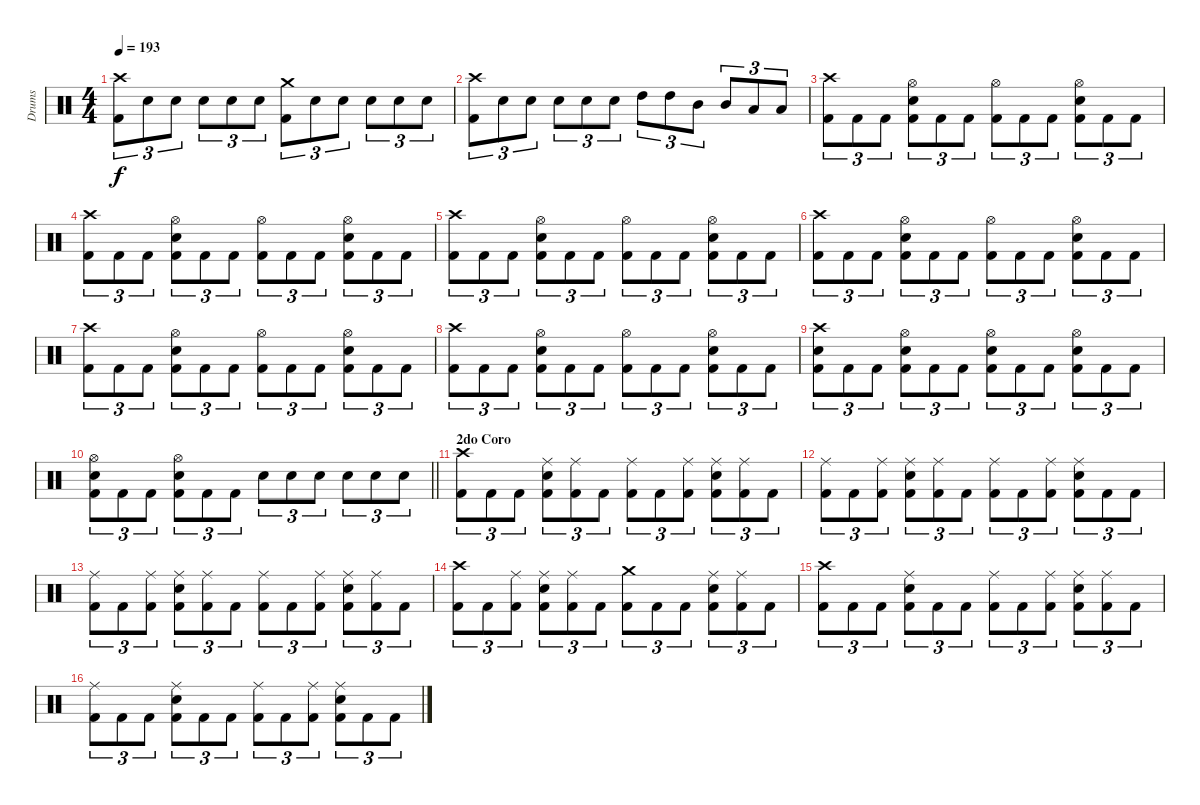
\track ("Drums" "Drums") {instrument percussion}
\staff {score}
\articulation defaults
\ts (4 4)
\tempo 193
\clef neutral
\ks c
("Crash high (hit)" "Kick (hit) 2").8{tu (3 2) dy f} "Electric Snare (hit)".8{tu (3 2)} "Electric Snare (hit)".8{tu (3 2)} "Electric Snare (hit)".8{tu (3 2)} "Electric Snare (hit)".8{tu (3 2)} "Electric Snare (hit)".8{tu (3 2)} ("Crash medium (hit)" "Kick (hit) 2").8{tu (3 2)} "Electric Snare (hit)".8{tu (3 2)} "Electric Snare (hit)".8{tu (3 2)} "Electric Snare (hit)".8{tu (3 2)} "Electric Snare (hit)".8{tu (3 2)} "Electric Snare (hit)".8{tu (3 2)} |
("Crash high (hit)" "Kick (hit) 2").8{tu (3 2)} "Electric Snare (hit)".8{tu (3 2)} "Electric Snare (hit)".8{tu (3 2)} "Electric Snare (hit)".8{tu (3 2)} "Electric Snare (hit)".8{tu (3 2)} "Electric Snare (hit)".8{tu (3 2)} "High Tom (hit)".8{tu (3 2)} "High Tom (hit)".8{tu (3 2)} "Mid Tom (hit)".8{tu (3 2)} "Mid Tom (hit)".8{tu (3 2)} "Low Tom (hit)".8{tu (3 2)} "Low Tom (hit)".8{tu (3 2)} |
("Crash high (hit)" "Kick (hit) 2").8{tu (3 2)} "Kick (hit) 2".8{tu (3 2)} "Kick (hit) 2".8{tu (3 2)} ("Hi-Hat (open)" "Electric Snare (hit)" "Kick (hit) 2").8{tu (3 2)} "Kick (hit) 2".8{tu (3 2)} "Kick (hit) 2".8{tu (3 2)} ("Hi-Hat (open)" "Kick (hit) 2").8{tu (3 2)} "Kick (hit) 2".8{tu (3 2)} "Kick (hit) 2".8{tu (3 2)} ("Hi-Hat (open)" "Electric Snare (hit)" "Kick (hit) 2").8{tu (3 2)} "Kick (hit) 2".8{tu (3 2)} "Kick (hit) 2".8{tu (3 2)} |
("Crash high (hit)" "Kick (hit) 2").8{tu (3 2)} "Kick (hit) 2".8{tu (3 2)} "Kick (hit) 2".8{tu (3 2)} ("Hi-Hat (open)" "Electric Snare (hit)" "Kick (hit) 2").8{tu (3 2)} "Kick (hit) 2".8{tu (3 2)} "Kick (hit) 2".8{tu (3 2)} ("Hi-Hat (open)" "Kick (hit) 2").8{tu (3 2)} "Kick (hit) 2".8{tu (3 2)} "Kick (hit) 2".8{tu (3 2)} ("Hi-Hat (open)" "Electric Snare (hit)" "Kick (hit) 2").8{tu (3 2)} "Kick (hit) 2".8{tu (3 2)} "Kick (hit) 2".8{tu (3 2)} |
("Crash high (hit)" "Kick (hit) 2").8{tu (3 2)} "Kick (hit) 2".8{tu (3 2)} "Kick (hit) 2".8{tu (3 2)} ("Hi-Hat (open)" "Electric Snare (hit)" "Kick (hit) 2").8{tu (3 2)} "Kick (hit) 2".8{tu (3 2)} "Kick (hit) 2".8{tu (3 2)} ("Hi-Hat (open)" "Kick (hit) 2").8{tu (3 2)} "Kick (hit) 2".8{tu (3 2)} "Kick (hit) 2".8{tu (3 2)} ("Hi-Hat (open)" "Electric Snare (hit)" "Kick (hit) 2").8{tu (3 2)} "Kick (hit) 2".8{tu (3 2)} "Kick (hit) 2".8{tu (3 2)} |
("Crash high (hit)" "Kick (hit) 2").8{tu (3 2)} "Kick (hit) 2".8{tu (3 2)} "Kick (hit) 2".8{tu (3 2)} ("Hi-Hat (open)" "Electric Snare (hit)" "Kick (hit) 2").8{tu (3 2)} "Kick (hit) 2".8{tu (3 2)} "Kick (hit) 2".8{tu (3 2)} ("Hi-Hat (open)" "Kick (hit) 2").8{tu (3 2)} "Kick (hit) 2".8{tu (3 2)} "Kick (hit) 2".8{tu (3 2)} ("Hi-Hat (open)" "Electric Snare (hit)" "Kick (hit) 2").8{tu (3 2)} "Kick (hit) 2".8{tu (3 2)} "Kick (hit) 2".8{tu (3 2)} |
("Crash high (hit)" "Kick (hit) 2").8{tu (3 2)} "Kick (hit) 2".8{tu (3 2)} "Kick (hit) 2".8{tu (3 2)} ("Hi-Hat (open)" "Electric Snare (hit)" "Kick (hit) 2").8{tu (3 2)} "Kick (hit) 2".8{tu (3 2)} "Kick (hit) 2".8{tu (3 2)} ("Hi-Hat (open)" "Kick (hit) 2").8{tu (3 2)} "Kick (hit) 2".8{tu (3 2)} "Kick (hit) 2".8{tu (3 2)} ("Hi-Hat (open)" "Electric Snare (hit)" "Kick (hit) 2").8{tu (3 2)} "Kick (hit) 2".8{tu (3 2)} "Kick (hit) 2".8{tu (3 2)} |
("Crash high (hit)" "Kick (hit) 2").8{tu (3 2)} "Kick (hit) 2".8{tu (3 2)} "Kick (hit) 2".8{tu (3 2)} ("Hi-Hat (open)" "Electric Snare (hit)" "Kick (hit) 2").8{tu (3 2)} "Kick (hit) 2".8{tu (3 2)} "Kick (hit) 2".8{tu (3 2)} ("Hi-Hat (open)" "Kick (hit) 2").8{tu (3 2)} "Kick (hit) 2".8{tu (3 2)} "Kick (hit) 2".8{tu (3 2)} ("Hi-Hat (open)" "Electric Snare (hit)" "Kick (hit) 2").8{tu (3 2)} "Kick (hit) 2".8{tu (3 2)} "Kick (hit) 2".8{tu (3 2)} |
("Crash high (hit)" "Electric Snare (hit)" "Kick (hit) 2").8{tu (3 2)} "Kick (hit) 2".8{tu (3 2)} "Kick (hit) 2".8{tu (3 2)} ("Hi-Hat (open)" "Electric Snare (hit)" "Kick (hit) 2").8{tu (3 2)} "Kick (hit) 2".8{tu (3 2)} "Kick (hit) 2".8{tu (3 2)} ("Hi-Hat (open)" "Electric Snare (hit)" "Kick (hit) 2").8{tu (3 2)} "Kick (hit) 2".8{tu (3 2)} "Kick (hit) 2".8{tu (3 2)} ("Hi-Hat (open)" "Electric Snare (hit)" "Kick (hit) 2").8{tu (3 2)} "Kick (hit) 2".8{tu (3 2)} "Kick (hit) 2".8{tu (3 2)} |
\barLineRight lightlight
("Hi-Hat (open)" "Electric Snare (hit)" "Kick (hit) 2").8{tu (3 2)} "Kick (hit) 2".8{tu (3 2)} "Kick (hit) 2".8{tu (3 2)} ("Hi-Hat (open)" "Electric Snare (hit)" "Kick (hit) 2").8{tu (3 2)} "Kick (hit) 2".8{tu (3 2)} "Kick (hit) 2".8{tu (3 2)} "Electric Snare (hit)".8{tu (3 2)} "Electric Snare (hit)".8{tu (3 2)} "Electric Snare (hit)".8{tu (3 2)} "Electric Snare (hit)".8{tu (3 2)} "Electric Snare (hit)".8{tu (3 2)} "Electric Snare (hit)".8{tu (3 2)} |
\section ("" "2do Coro")
("Crash high (hit)" "Kick (hit) 2").8{tu (3 2)} "Kick (hit) 2".8{tu (3 2)} "Kick (hit) 2".8{tu (3 2)} ("Ride (middle)" "Electric Snare (hit)" "Kick (hit) 2").8{tu (3 2)} ("Ride (middle)" "Kick (hit) 2").8{tu (3 2)} "Kick (hit) 2".8{tu (3 2)} ("Ride (middle)" "Kick (hit) 2").8{tu (3 2)} "Kick (hit) 2".8{tu (3 2)} ("Ride (middle)" "Kick (hit) 2").8{tu (3 2)} ("Ride (middle)" "Electric Snare (hit)" "Kick (hit) 2").8{tu (3 2)} ("Ride (middle)" "Kick (hit) 2").8{tu (3 2)} "Kick (hit) 2".8{tu (3 2)} |
("Ride (middle)" "Kick (hit) 2").8{tu (3 2)} "Kick (hit) 2".8{tu (3 2)} ("Ride (middle)" "Kick (hit) 2").8{tu (3 2)} ("Ride (middle)" "Electric Snare (hit)" "Kick (hit) 2").8{tu (3 2)} ("Ride (middle)" "Kick (hit) 2").8{tu (3 2)} "Kick (hit) 2".8{tu (3 2)} ("Ride (middle)" "Kick (hit) 2").8{tu (3 2)} "Kick (hit) 2".8{tu (3 2)} ("Ride (middle)" "Kick (hit) 2").8{tu (3 2)} ("Ride (middle)" "Electric Snare (hit)" "Kick (hit) 2").8{tu (3 2)} "Kick (hit) 2".8{tu (3 2)} "Kick (hit) 2".8{tu (3 2)} |
("Ride (middle)" "Kick (hit) 2").8{tu (3 2)} "Kick (hit) 2".8{tu (3 2)} ("Ride (middle)" "Kick (hit) 2").8{tu (3 2)} ("Ride (middle)" "Electric Snare (hit)" "Kick (hit) 2").8{tu (3 2)} ("Ride (middle)" "Kick (hit) 2").8{tu (3 2)} "Kick (hit) 2".8{tu (3 2)} ("Ride (middle)" "Kick (hit) 2").8{tu (3 2)} "Kick (hit) 2".8{tu (3 2)} ("Ride (middle)" "Kick (hit) 2").8{tu (3 2)} ("Ride (middle)" "Electric Snare (hit)" "Kick (hit) 2").8{tu (3 2)} ("Ride (middle)" "Kick (hit) 2").8{tu (3 2)} "Kick (hit) 2".8{tu (3 2)} |
("Crash high (hit)" "Kick (hit) 2").8{tu (3 2)} "Kick (hit) 2".8{tu (3 2)} ("Ride (middle)" "Kick (hit) 2").8{tu (3 2)} ("Ride (middle)" "Electric Snare (hit)" "Kick (hit) 2").8{tu (3 2)} ("Ride (middle)" "Kick (hit) 2").8{tu (3 2)} "Kick (hit) 2".8{tu (3 2)} ("Crash medium (hit)" "Kick (hit) 2").8{tu (3 2)} "Kick (hit) 2".8{tu (3 2)} "Kick (hit) 2".8{tu (3 2)} ("Ride (middle)" "Electric Snare (hit)" "Kick (hit) 2").8{tu (3 2)} ("Ride (middle)" "Kick (hit) 2").8{tu (3 2)} "Kick (hit) 2".8{tu (3 2)} |
("Crash high (hit)" "Kick (hit) 2").8{tu (3 2)} "Kick (hit) 2".8{tu (3 2)} "Kick (hit) 2".8{tu (3 2)} ("Ride (middle)" "Electric Snare (hit)" "Kick (hit) 2").8{tu (3 2)} "Kick (hit) 2".8{tu (3 2)} "Kick (hit) 2".8{tu (3 2)} ("Ride (middle)" "Kick (hit) 2").8{tu (3 2)} "Kick (hit) 2".8{tu (3 2)} ("Ride (middle)" "Kick (hit) 2").8{tu (3 2)} ("Ride (middle)" "Electric Snare (hit)" "Kick (hit) 2").8{tu (3 2)} ("Ride (middle)" "Kick (hit) 2").8{tu (3 2)} "Kick (hit) 2".8{tu (3 2)} |
("Ride (middle)" "Kick (hit) 2").8{tu (3 2)} "Kick (hit) 2".8{tu (3 2)} "Kick (hit) 2".8{tu (3 2)} ("Ride (middle)" "Electric Snare (hit)" "Kick (hit) 2").8{tu (3 2)} "Kick (hit) 2".8{tu (3 2)} "Kick (hit) 2".8{tu (3 2)} ("Ride (middle)" "Kick (hit) 2").8{tu (3 2)} "Kick (hit) 2".8{tu (3 2)} ("Ride (middle)" "Kick (hit) 2").8{tu (3 2)} ("Ride (middle)" "Electric Snare (hit)" "Kick (hit) 2").8{tu (3 2)} "Kick (hit) 2".8{tu (3 2)} "Kick (hit) 2".8{tu (3 2)}
